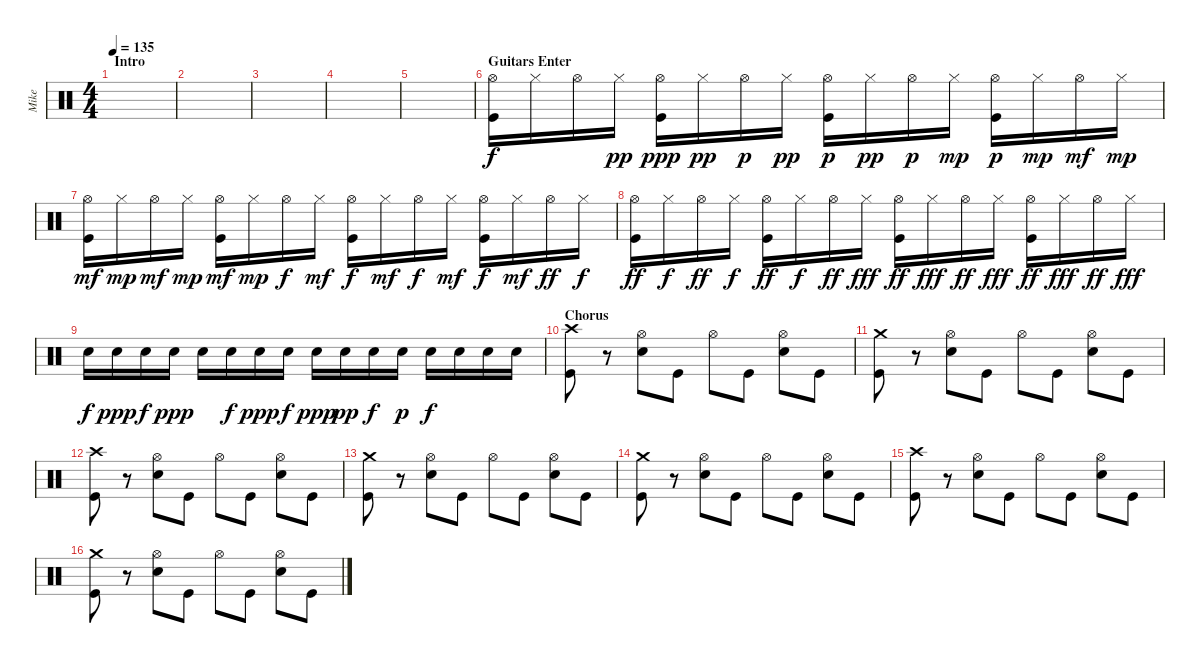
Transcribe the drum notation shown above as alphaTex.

\track ("Mike" "Mike") {instrument percussion}
\staff {score}
\articulation defaults
\ts (4 4)
\section ("" "Intro")
\tempo 135
\clef neutral
\ks c
|
|
|
|
|
\section ("" "Guitars Enter")
("Hi-Hat (open)" "Kick (hit)").16 "Hi-Hat (closed)".16 "Hi-Hat (open)".16 "Hi-Hat (closed)".16{dy pp} ("Hi-Hat (open)" "Kick (hit)").16{dy ppp} "Hi-Hat (closed)".16{dy pp} "Hi-Hat (open)".16{dy p} "Hi-Hat (closed)".16{dy pp} ("Hi-Hat (open)" "Kick (hit)").16{dy p} "Hi-Hat (closed)".16{dy pp} "Hi-Hat (open)".16{dy p} "Hi-Hat (closed)".16{dy mp} ("Hi-Hat (open)" "Kick (hit)").16{dy p} "Hi-Hat (closed)".16{dy mp} "Hi-Hat (open)".16{dy mf} "Hi-Hat (closed)".16{dy mp} |
("Hi-Hat (open)" "Kick (hit)").16{dy mf} "Hi-Hat (closed)".16{dy mp} "Hi-Hat (open)".16{dy mf} "Hi-Hat (closed)".16{dy mp} ("Hi-Hat (open)" "Kick (hit)").16{dy mf} "Hi-Hat (closed)".16{dy mp} "Hi-Hat (open)".16{dy f} "Hi-Hat (closed)".16{dy mf} ("Hi-Hat (open)" "Kick (hit)").16{dy f} "Hi-Hat (closed)".16{dy mf} "Hi-Hat (open)".16{dy f} "Hi-Hat (closed)".16{dy mf} ("Hi-Hat (open)" "Kick (hit)").16{dy f} "Hi-Hat (closed)".16{dy mf} "Hi-Hat (open)".16{dy ff} "Hi-Hat (closed)".16{dy f} |
("Hi-Hat (open)" "Kick (hit)").16{dy ff} "Hi-Hat (closed)".16{dy f} "Hi-Hat (open)".16{dy ff} "Hi-Hat (closed)".16{dy f} ("Hi-Hat (open)" "Kick (hit)").16{dy ff} "Hi-Hat (closed)".16{dy f} "Hi-Hat (open)".16{dy ff} "Hi-Hat (closed)".16{dy fff} ("Hi-Hat (open)" "Kick (hit)").16{dy ff} "Hi-Hat (closed)".16{dy fff} "Hi-Hat (open)".16{dy ff} "Hi-Hat (closed)".16{dy fff} ("Hi-Hat (open)" "Kick (hit)").16{dy ff} "Hi-Hat (closed)".16{dy fff} "Hi-Hat (open)".16{dy ff} "Hi-Hat (closed)".16{dy fff} |
"Electric Snare (hit)".16{dy f} "Electric Snare (hit)".16{dy ppp} "Electric Snare (hit)".16{dy f} "Electric Snare (hit)".16{dy ppp} "Electric Snare (hit)".16 "Electric Snare (hit)".16{dy f} "Electric Snare (hit)".16{dy ppp} "Electric Snare (hit)".16{dy f} "Electric Snare (hit)".16{dy ppp} "Electric Snare (hit)".16{dy pp} "Electric Snare (hit)".16{dy f} "Electric Snare (hit)".16{dy p} "Electric Snare (hit)".16{dy f} "Electric Snare (hit)".16 "Electric Snare (hit)".16 "Electric Snare (hit)".16 |
\section ("" "Chorus")
("Crash high (hit)" "Kick (hit)").8 r.8 ("Electric Snare (hit)" "Hi-Hat (open)").8 "Kick (hit)".8 "Hi-Hat (open)".8 "Kick (hit)".8 ("Electric Snare (hit)" "Hi-Hat (open)").8 "Kick (hit)".8 |
("Crash medium (hit)" "Kick (hit)").8 r.8 ("Electric Snare (hit)" "Hi-Hat (open)").8 "Kick (hit)".8 "Hi-Hat (open)".8 "Kick (hit)".8 ("Electric Snare (hit)" "Hi-Hat (open)").8 "Kick (hit)".8 |
("Crash high (hit)" "Kick (hit)").8 r.8 ("Electric Snare (hit)" "Hi-Hat (open)").8 "Kick (hit)".8 "Hi-Hat (open)".8 "Kick (hit)".8 ("Electric Snare (hit)" "Hi-Hat (open)").8 "Kick (hit)".8 |
("Crash medium (hit)" "Kick (hit)").8 r.8 ("Electric Snare (hit)" "Hi-Hat (open)").8 "Kick (hit)".8 "Hi-Hat (open)".8 "Kick (hit)".8 ("Electric Snare (hit)" "Hi-Hat (open)").8 "Kick (hit)".8 |
("Crash medium (hit)" "Kick (hit)").8 r.8 ("Electric Snare (hit)" "Hi-Hat (open)").8 "Kick (hit)".8 "Hi-Hat (open)".8 "Kick (hit)".8 ("Electric Snare (hit)" "Hi-Hat (open)").8 "Kick (hit)".8 |
("Crash high (hit)" "Kick (hit)").8 r.8 ("Electric Snare (hit)" "Hi-Hat (open)").8 "Kick (hit)".8 "Hi-Hat (open)".8 "Kick (hit)".8 ("Electric Snare (hit)" "Hi-Hat (open)").8 "Kick (hit)".8 |
("Crash medium (hit)" "Kick (hit)").8 r.8 ("Electric Snare (hit)" "Hi-Hat (open)").8 "Kick (hit)".8 "Hi-Hat (open)".8 "Kick (hit)".8 ("Electric Snare (hit)" "Hi-Hat (open)").8 "Kick (hit)".8
